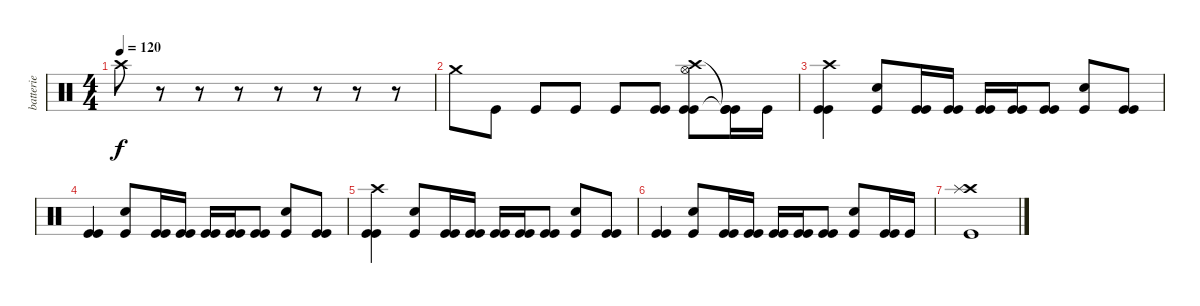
\track ("batterie" "batterie") {instrument percussion}
\staff {score}
\articulation defaults
\ts (4 4)
\tempo 120
\clef neutral
\ks c "Crash high (hit)".8{dy f}
r.8 r.8 r.8 r.8 r.8 r.8 r.8 |
"Crash medium (hit)".8 "Kick (hit)".8 "Kick (hit)".8 "Kick (hit)".8 "Kick (hit)".8 ("Kick (hit)" "Kick (hit)").8 ("Kick (hit)" "Crash high (hit)" "Hi-Hat (open)" "Kick (hit)").8 ("Kick (hit)"{t} "Kick (hit)"{t} "Kick (hit)").16 "Kick (hit)".16 |
("Kick (hit)" "Crash high (hit)" "Kick (hit)").4{volume 9} ("Electric Snare (hit)" "Kick (hit)").8 ("Kick (hit)" "Kick (hit)").16 ("Kick (hit)" "Kick (hit)").16 ("Kick (hit)" "Kick (hit)").16 ("Kick (hit)" "Kick (hit)").16 ("Kick (hit)" "Kick (hit)").8 ("Electric Snare (hit)" "Kick (hit)").8 ("Kick (hit)" "Kick (hit)").8 |
("Kick (hit)" "Kick (hit)").4 ("Electric Snare (hit)" "Kick (hit)").8 ("Kick (hit)" "Kick (hit)").16 ("Kick (hit)" "Kick (hit)").16 ("Kick (hit)" "Kick (hit)").16 ("Kick (hit)" "Kick (hit)").16 ("Kick (hit)" "Kick (hit)").8 ("Electric Snare (hit)" "Kick (hit)").8 ("Kick (hit)" "Kick (hit)").8 |
("Kick (hit)" "Crash high (hit)" "Kick (hit)").4 ("Electric Snare (hit)" "Kick (hit)").8 ("Kick (hit)" "Kick (hit)").16 ("Kick (hit)" "Kick (hit)").16 ("Kick (hit)" "Kick (hit)").16 ("Kick (hit)" "Kick (hit)").16 ("Kick (hit)" "Kick (hit)").8 ("Electric Snare (hit)" "Kick (hit)").8 ("Kick (hit)" "Kick (hit)").8 |
("Kick (hit)" "Kick (hit)").4 ("Electric Snare (hit)" "Kick (hit)").8 ("Kick (hit)" "Kick (hit)").16 ("Kick (hit)" "Kick (hit)").16 ("Kick (hit)" "Kick (hit)").16 ("Kick (hit)" "Kick (hit)").16 ("Kick (hit)" "Kick (hit)").8 ("Electric Snare (hit)" "Kick (hit)").8 ("Kick (hit)" "Kick (hit)").16 "Kick (hit)".16 |
("Crash high (hit)" "Kick (hit)" "Splash (hit)").1
